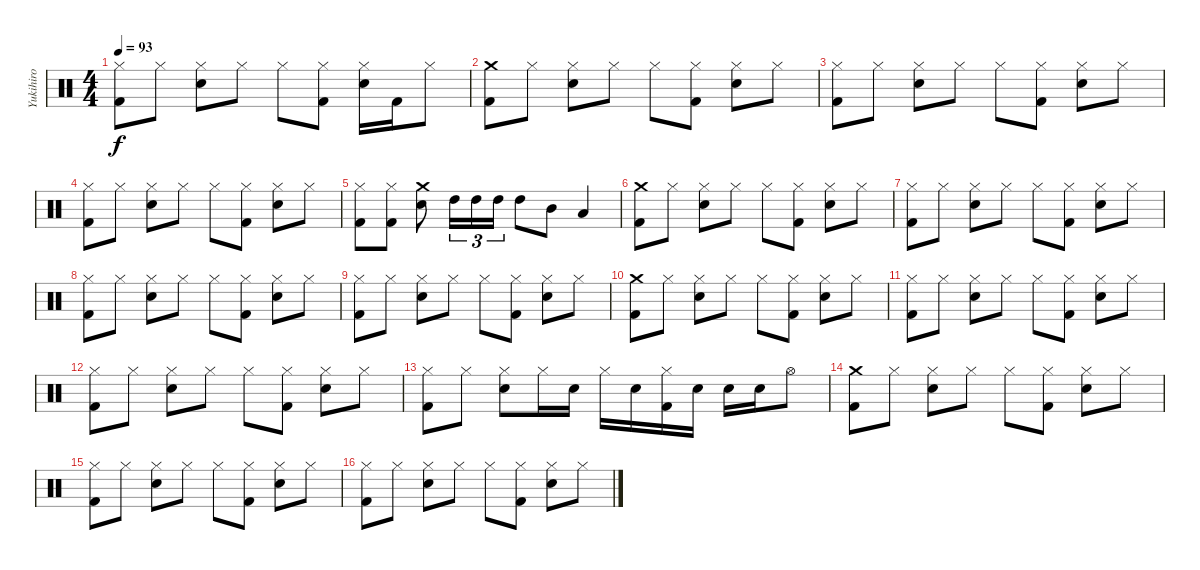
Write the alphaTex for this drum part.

\track ("Yukihiro" "Yukihiro") {instrument percussion}
\staff {score}
\articulation defaults
\ts (4 4)
\tempo 93
\clef neutral
\ks c
("Hi-Hat (closed)" "Kick (hit) 2").8{dy f} "Hi-Hat (closed)".8 ("Hi-Hat (closed)" "Snare (hit) 2").8 "Hi-Hat (closed)".8 "Hi-Hat (closed)".8 ("Hi-Hat (closed)" "Kick (hit) 2").8 ("Hi-Hat (closed)" "Snare (hit) 2").16 "Kick (hit) 2".16 "Hi-Hat (closed)".8 |
("Crash medium (hit)" "Kick (hit) 2").8 "Hi-Hat (closed)".8 ("Hi-Hat (closed)" "Snare (hit) 2").8 "Hi-Hat (closed)".8 "Hi-Hat (closed)".8 ("Hi-Hat (closed)" "Kick (hit) 2").8 ("Hi-Hat (closed)" "Snare (hit) 2").8 "Hi-Hat (closed)".8 |
("Hi-Hat (closed)" "Kick (hit) 2").8 "Hi-Hat (closed)".8 ("Hi-Hat (closed)" "Snare (hit) 2").8 "Hi-Hat (closed)".8 "Hi-Hat (closed)".8 ("Hi-Hat (closed)" "Kick (hit) 2").8 ("Hi-Hat (closed)" "Snare (hit) 2").8 "Hi-Hat (closed)".8 |
("Hi-Hat (closed)" "Kick (hit) 2").8 "Hi-Hat (closed)".8 ("Hi-Hat (closed)" "Snare (hit) 2").8 "Hi-Hat (closed)".8 "Hi-Hat (closed)".8 ("Hi-Hat (closed)" "Kick (hit) 2").8 ("Hi-Hat (closed)" "Snare (hit) 2").8 "Hi-Hat (closed)".8 |
("Hi-Hat (closed)" "Kick (hit) 2").8 ("Hi-Hat (closed)" "Kick (hit) 2").8 ("Crash medium (hit)" "Snare (hit) 2").8 "High Tom (hit)".16{tu (3 2)} "High Tom (hit)".16{tu (3 2)} "High Tom (hit)".16{tu (3 2)} "High Tom (hit)".8 "Mid Tom (hit)".8 "Low Tom (hit)".4 |
("Crash medium (hit)" "Kick (hit) 2").8 "Hi-Hat (closed)".8 ("Hi-Hat (closed)" "Snare (hit) 2").8 "Hi-Hat (closed)".8 "Hi-Hat (closed)".8 ("Hi-Hat (closed)" "Kick (hit) 2").8 ("Hi-Hat (closed)" "Snare (hit) 2").8 "Hi-Hat (closed)".8 |
("Hi-Hat (closed)" "Kick (hit) 2").8 "Hi-Hat (closed)".8 ("Hi-Hat (closed)" "Snare (hit) 2").8 "Hi-Hat (closed)".8 "Hi-Hat (closed)".8 ("Hi-Hat (closed)" "Kick (hit) 2").8 ("Hi-Hat (closed)" "Snare (hit) 2").8 "Hi-Hat (closed)".8 |
("Hi-Hat (closed)" "Kick (hit) 2").8 "Hi-Hat (closed)".8 ("Hi-Hat (closed)" "Snare (hit) 2").8 "Hi-Hat (closed)".8 "Hi-Hat (closed)".8 ("Hi-Hat (closed)" "Kick (hit) 2").8 ("Hi-Hat (closed)" "Snare (hit) 2").8 "Hi-Hat (closed)".8 |
("Hi-Hat (closed)" "Kick (hit) 2").8 "Hi-Hat (closed)".8 ("Hi-Hat (closed)" "Snare (hit) 2").8 "Hi-Hat (closed)".8 "Hi-Hat (closed)".8 ("Hi-Hat (closed)" "Kick (hit) 2").8 ("Hi-Hat (closed)" "Snare (hit) 2").8 "Hi-Hat (closed)".8 |
("Crash medium (hit)" "Kick (hit) 2").8 "Hi-Hat (closed)".8 ("Hi-Hat (closed)" "Snare (hit) 2").8 "Hi-Hat (closed)".8 "Hi-Hat (closed)".8 ("Hi-Hat (closed)" "Kick (hit) 2").8 ("Hi-Hat (closed)" "Snare (hit) 2").8 "Hi-Hat (closed)".8 |
("Hi-Hat (closed)" "Kick (hit) 2").8 "Hi-Hat (closed)".8 ("Hi-Hat (closed)" "Snare (hit) 2").8 "Hi-Hat (closed)".8 "Hi-Hat (closed)".8 ("Hi-Hat (closed)" "Kick (hit) 2").8 ("Hi-Hat (closed)" "Snare (hit) 2").8 "Hi-Hat (closed)".8 |
("Hi-Hat (closed)" "Kick (hit) 2").8 "Hi-Hat (closed)".8 ("Hi-Hat (closed)" "Snare (hit) 2").8 "Hi-Hat (closed)".8 "Hi-Hat (closed)".8 ("Hi-Hat (closed)" "Kick (hit) 2").8 ("Hi-Hat (closed)" "Snare (hit) 2").8 "Hi-Hat (closed)".8 |
("Hi-Hat (closed)" "Kick (hit) 2").8 "Hi-Hat (closed)".8 ("Hi-Hat (closed)" "Snare (hit) 2").8 "Hi-Hat (closed)".16 "Snare (hit) 2".16 "Hi-Hat (closed)".16 "Snare (hit) 2".16 ("Hi-Hat (closed)" "Kick (hit) 2").16 "Snare (hit) 2".16 "Snare (hit) 2".16 "Snare (hit) 2".16 "Hi-Hat (open)".8 |
("Crash medium (hit)" "Kick (hit) 2").8 "Hi-Hat (closed)".8 ("Hi-Hat (closed)" "Snare (hit) 2").8 "Hi-Hat (closed)".8 "Hi-Hat (closed)".8 ("Hi-Hat (closed)" "Kick (hit) 2").8 ("Hi-Hat (closed)" "Snare (hit) 2").8 "Hi-Hat (closed)".8 |
("Hi-Hat (closed)" "Kick (hit) 2").8 "Hi-Hat (closed)".8 ("Hi-Hat (closed)" "Snare (hit) 2").8 "Hi-Hat (closed)".8 "Hi-Hat (closed)".8 ("Hi-Hat (closed)" "Kick (hit) 2").8 ("Hi-Hat (closed)" "Snare (hit) 2").8 "Hi-Hat (closed)".8 |
("Hi-Hat (closed)" "Kick (hit) 2").8 "Hi-Hat (closed)".8 ("Hi-Hat (closed)" "Snare (hit) 2").8 "Hi-Hat (closed)".8 "Hi-Hat (closed)".8 ("Hi-Hat (closed)" "Kick (hit) 2").8 ("Hi-Hat (closed)" "Snare (hit) 2").8 "Hi-Hat (closed)".8
